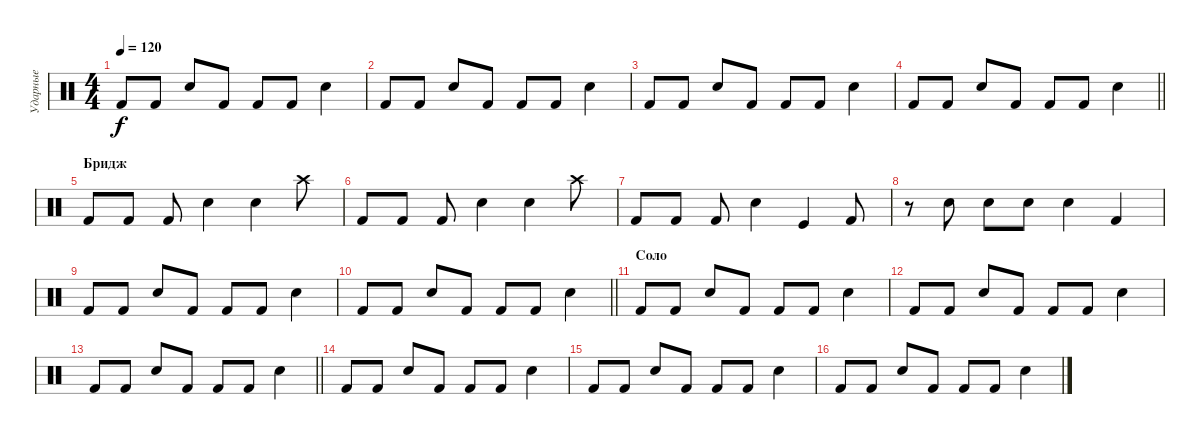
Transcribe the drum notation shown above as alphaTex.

\track ("Ударные" "Ударные") {instrument percussion}
\staff {score}
\articulation defaults
\ts (4 4)
\tempo 120
\clef neutral
\ks c "Kick (hit) 2".8{dy f} "Kick (hit) 2".8 "Electric Snare (hit)".8 "Kick (hit) 2".8 "Kick (hit) 2".8 "Kick (hit) 2".8 "Electric Snare (hit)".4
|
"Kick (hit) 2".8 "Kick (hit) 2".8 "Electric Snare (hit)".8 "Kick (hit) 2".8 "Kick (hit) 2".8 "Kick (hit) 2".8 "Electric Snare (hit)".4 |
"Kick (hit) 2".8 "Kick (hit) 2".8 "Electric Snare (hit)".8 "Kick (hit) 2".8 "Kick (hit) 2".8 "Kick (hit) 2".8 "Electric Snare (hit)".4 |
\barLineRight lightlight "Kick (hit) 2".8 "Kick (hit) 2".8 "Electric Snare (hit)".8 "Kick (hit) 2".8 "Kick (hit) 2".8 "Kick (hit) 2".8 "Electric Snare (hit)".4
|
\section ("" "Бридж")
"Kick (hit) 2".8 "Kick (hit) 2".8 "Kick (hit) 2".8 "Electric Snare (hit)".4 "Electric Snare (hit)".4 "Crash high (hit)".8 |
"Kick (hit) 2".8 "Kick (hit) 2".8 "Kick (hit) 2".8 "Electric Snare (hit)".4 "Electric Snare (hit)".4 "Crash high (hit)".8 |
"Kick (hit) 2".8 "Kick (hit) 2".8 "Kick (hit) 2".8 "Electric Snare (hit)".4 "Kick (hit)".4 "Kick (hit) 2".8 |
r.8 "Electric Snare (hit)".8 "Electric Snare (hit)".8 "Electric Snare (hit)".8 "Electric Snare (hit)".4 "Kick (hit) 2".4 |
"Kick (hit) 2".8 "Kick (hit) 2".8 "Electric Snare (hit)".8 "Kick (hit) 2".8 "Kick (hit) 2".8 "Kick (hit) 2".8 "Electric Snare (hit)".4 |
\barLineRight lightlight "Kick (hit) 2".8 "Kick (hit) 2".8 "Electric Snare (hit)".8 "Kick (hit) 2".8 "Kick (hit) 2".8 "Kick (hit) 2".8 "Electric Snare (hit)".4
|
\section ("" "Соло")
"Kick (hit) 2".8 "Kick (hit) 2".8 "Electric Snare (hit)".8 "Kick (hit) 2".8 "Kick (hit) 2".8 "Kick (hit) 2".8 "Electric Snare (hit)".4 |
"Kick (hit) 2".8 "Kick (hit) 2".8 "Electric Snare (hit)".8 "Kick (hit) 2".8 "Kick (hit) 2".8 "Kick (hit) 2".8 "Electric Snare (hit)".4 |
\barLineRight lightlight "Kick (hit) 2".8 "Kick (hit) 2".8 "Electric Snare (hit)".8 "Kick (hit) 2".8 "Kick (hit) 2".8 "Kick (hit) 2".8 "Electric Snare (hit)".4
|
"Kick (hit) 2".8 "Kick (hit) 2".8 "Electric Snare (hit)".8 "Kick (hit) 2".8 "Kick (hit) 2".8 "Kick (hit) 2".8 "Electric Snare (hit)".4 |
"Kick (hit) 2".8 "Kick (hit) 2".8 "Electric Snare (hit)".8 "Kick (hit) 2".8 "Kick (hit) 2".8 "Kick (hit) 2".8 "Electric Snare (hit)".4 |
"Kick (hit) 2".8 "Kick (hit) 2".8 "Electric Snare (hit)".8 "Kick (hit) 2".8 "Kick (hit) 2".8 "Kick (hit) 2".8 "Electric Snare (hit)".4
